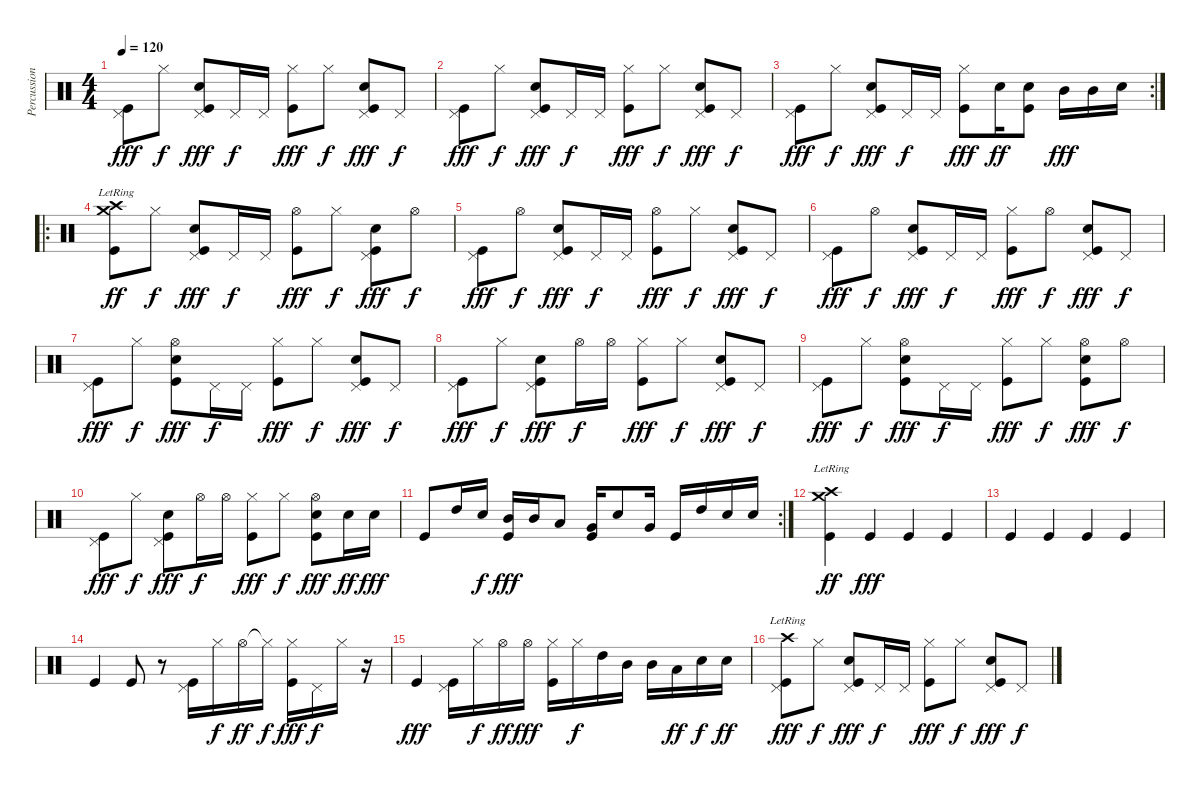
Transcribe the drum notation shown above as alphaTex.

\track ("Percussions" "Percussion") {instrument percussion}
\staff {score}
\articulation defaults
\ts (4 4)
\tempo 120
\clef neutral
\ks c
("Pedal Hi-Hat (hit)" "Kick (hit)").8{dy fff} "Hi-Hat (closed)".8{dy f} ("Pedal Hi-Hat (hit)" "Kick (hit)" "Electric Snare (hit)").8{dy fff} "Pedal Hi-Hat (hit)".16{dy f} "Pedal Hi-Hat (hit)".16 ("Hi-Hat (closed)" "Kick (hit)").8{dy fff} "Hi-Hat (closed)".8{dy f} ("Pedal Hi-Hat (hit)" "Kick (hit)" "Electric Snare (hit)").8{dy fff} "Pedal Hi-Hat (hit)".8{dy f} |
("Pedal Hi-Hat (hit)" "Kick (hit)").8{dy fff} "Hi-Hat (closed)".8{dy f} ("Pedal Hi-Hat (hit)" "Kick (hit)" "Electric Snare (hit)").8{dy fff} "Pedal Hi-Hat (hit)".16{dy f} "Pedal Hi-Hat (hit)".16 ("Hi-Hat (closed)" "Kick (hit)").8{dy fff} "Hi-Hat (closed)".8{dy f} ("Pedal Hi-Hat (hit)" "Kick (hit)" "Electric Snare (hit)").8{dy fff} "Pedal Hi-Hat (hit)".8{dy f} |
\rc 2
("Pedal Hi-Hat (hit)" "Kick (hit)").8{dy fff} "Hi-Hat (closed)".8{dy f} ("Pedal Hi-Hat (hit)" "Kick (hit)" "Electric Snare (hit)").8{dy fff} "Pedal Hi-Hat (hit)".16{dy f} "Pedal Hi-Hat (hit)".16 ("Hi-Hat (closed)" "Kick (hit)").8{dy fff} "Electric Snare (hit)".16{dy ff} ("Kick (hit)" "Electric Snare (hit)").8 "Mid Tom (hit)".16{dy fff} "Mid Tom (hit)".16 "Electric Snare (hit)".16 |
\ro
("Kick (hit)" "Crash medium (hit)"{lr} "Crash high (hit)"{lr}).8{dy ff} "Hi-Hat (closed)".8{dy f} ("Pedal Hi-Hat (hit)" "Kick (hit)" "Electric Snare (hit)").8{dy fff} "Pedal Hi-Hat (hit)".16{dy f} "Pedal Hi-Hat (hit)".16 ("Hi-Hat (open)" "Kick (hit)").8{dy fff} "Hi-Hat (closed)".8{dy f} ("Pedal Hi-Hat (hit)" "Kick (hit)" "Electric Snare (hit)").8{dy fff} "Hi-Hat (open)".8{dy f} |
("Pedal Hi-Hat (hit)" "Kick (hit)").8{dy fff} "Hi-Hat (open)".8{dy f} ("Pedal Hi-Hat (hit)" "Kick (hit)" "Electric Snare (hit)").8{dy fff} "Pedal Hi-Hat (hit)".16{dy f} "Pedal Hi-Hat (hit)".16 ("Hi-Hat (open)" "Kick (hit)").8{dy fff} "Hi-Hat (closed)".8{dy f} ("Pedal Hi-Hat (hit)" "Kick (hit)" "Electric Snare (hit)").8{dy fff} "Pedal Hi-Hat (hit)".8{dy f} |
("Pedal Hi-Hat (hit)" "Kick (hit)").8{dy fff} "Hi-Hat (open)".8{dy f} ("Pedal Hi-Hat (hit)" "Kick (hit)" "Electric Snare (hit)").8{dy fff} "Pedal Hi-Hat (hit)".16{dy f} "Pedal Hi-Hat (hit)".16 ("Hi-Hat (closed)" "Kick (hit)").8{dy fff} "Hi-Hat (open)".8{dy f} ("Pedal Hi-Hat (hit)" "Kick (hit)" "Electric Snare (hit)").8{dy fff} "Pedal Hi-Hat (hit)".8{dy f} |
("Pedal Hi-Hat (hit)" "Kick (hit)").8{dy fff} "Hi-Hat (closed)".8{dy f} ("Hi-Hat (open)" "Kick (hit)" "Electric Snare (hit)").8{dy fff} "Pedal Hi-Hat (hit)".16{dy f} "Pedal Hi-Hat (hit)".16 ("Hi-Hat (closed)" "Kick (hit)").8{dy fff} "Hi-Hat (closed)".8{dy f} ("Pedal Hi-Hat (hit)" "Kick (hit)" "Electric Snare (hit)").8{dy fff} "Pedal Hi-Hat (hit)".8{dy f} |
("Pedal Hi-Hat (hit)" "Kick (hit)").8{dy fff} "Hi-Hat (closed)".8{dy f} ("Pedal Hi-Hat (hit)" "Kick (hit)" "Electric Snare (hit)").8{dy fff} "Hi-Hat (open)".16{dy f} "Hi-Hat (open)".16 ("Hi-Hat (closed)" "Kick (hit)").8{dy fff} "Hi-Hat (closed)".8{dy f} ("Pedal Hi-Hat (hit)" "Kick (hit)" "Electric Snare (hit)").8{dy fff} "Pedal Hi-Hat (hit)".8{dy f} |
("Pedal Hi-Hat (hit)" "Kick (hit)").8{dy fff} "Hi-Hat (closed)".8{dy f} ("Hi-Hat (open)" "Kick (hit)" "Electric Snare (hit)").8{dy fff} "Pedal Hi-Hat (hit)".16{dy f} "Pedal Hi-Hat (hit)".16 ("Hi-Hat (closed)" "Kick (hit)").8{dy fff} "Hi-Hat (closed)".8{dy f} ("Hi-Hat (open)" "Kick (hit)" "Electric Snare (hit)").8{dy fff} "Hi-Hat (open)".8{dy f} |
("Pedal Hi-Hat (hit)" "Kick (hit)").8{dy fff} "Hi-Hat (closed)".8{dy f} ("Pedal Hi-Hat (hit)" "Kick (hit)" "Electric Snare (hit)").8{dy fff} "Hi-Hat (open)".16{dy f} "Hi-Hat (open)".16 ("Hi-Hat (closed)" "Kick (hit)").8{dy fff} "Hi-Hat (closed)".8{dy f} ("Hi-Hat (open)" "Kick (hit)" "Electric Snare (hit)").8{dy fff} "Electric Snare (hit)".16{dy ff} "Electric Snare (hit)".16{dy fff} |
\rc 2 "Kick (hit)".8 "High Tom (hit)".16 "Electric Snare (hit)".16{dy f}
("Mid Tom (hit)" "Kick (hit)").16{dy fff} "Mid Tom (hit)".16 "Low Tom (hit)".8 ("Very Low Tom (hit)" "Kick (hit)").16 "Electric Snare (hit)".8 "Very Low Tom (hit)".16 "Kick (hit)".16 "High Tom (hit)".16 "Electric Snare (hit)".16 "Electric Snare (hit)".16 |
("Crash high (hit)"{lr} "Kick (hit)" "Crash medium (hit)"{lr}).4{dy ff} "Kick (hit)".4{dy fff} "Kick (hit)".4 "Kick (hit)".4 |
"Kick (hit)".4 "Kick (hit)".4 "Kick (hit)".4 "Kick (hit)".4 |
"Kick (hit)".4 "Kick (hit)".8 r.8 ("Pedal Hi-Hat (hit)" "Kick (hit)").16 "Hi-Hat (closed)".16{dy f} "Hi-Hat (open)".16{dy ff} "Hi-Hat (closed)"{t}.16{dy f} ("Hi-Hat (closed)" "Kick (hit)").16{dy fff} "Pedal Hi-Hat (hit)".16{dy f} "Hi-Hat (closed)".16 r.16 |
"Kick (hit)".4{dy fff} ("Pedal Hi-Hat (hit)" "Kick (hit)").16 "Hi-Hat (closed)".16{dy f} "Hi-Hat (open)".16{dy ff} "Hi-Hat (open)".16{dy fff} ("Hi-Hat (closed)" "Kick (hit)").16 "Hi-Hat (closed)".16{dy f} "High Tom (hit)".16 "Mid Tom (hit)".16 "Mid Tom (hit)".16 "Low Tom (hit)".16{dy ff} "Electric Snare (hit)".16{dy f} "Electric Snare (hit)".16{dy ff} |
("Pedal Hi-Hat (hit)" "Kick (hit)" "Crash high (hit)"{lr}).8{dy fff} "Hi-Hat (closed)".8{dy f} ("Pedal Hi-Hat (hit)" "Kick (hit)" "Electric Snare (hit)").8{dy fff} "Pedal Hi-Hat (hit)".16{dy f} "Pedal Hi-Hat (hit)".16 ("Hi-Hat (closed)" "Kick (hit)").8{dy fff} "Hi-Hat (closed)".8{dy f} ("Pedal Hi-Hat (hit)" "Kick (hit)" "Electric Snare (hit)").8{dy fff} "Pedal Hi-Hat (hit)".8{dy f}
